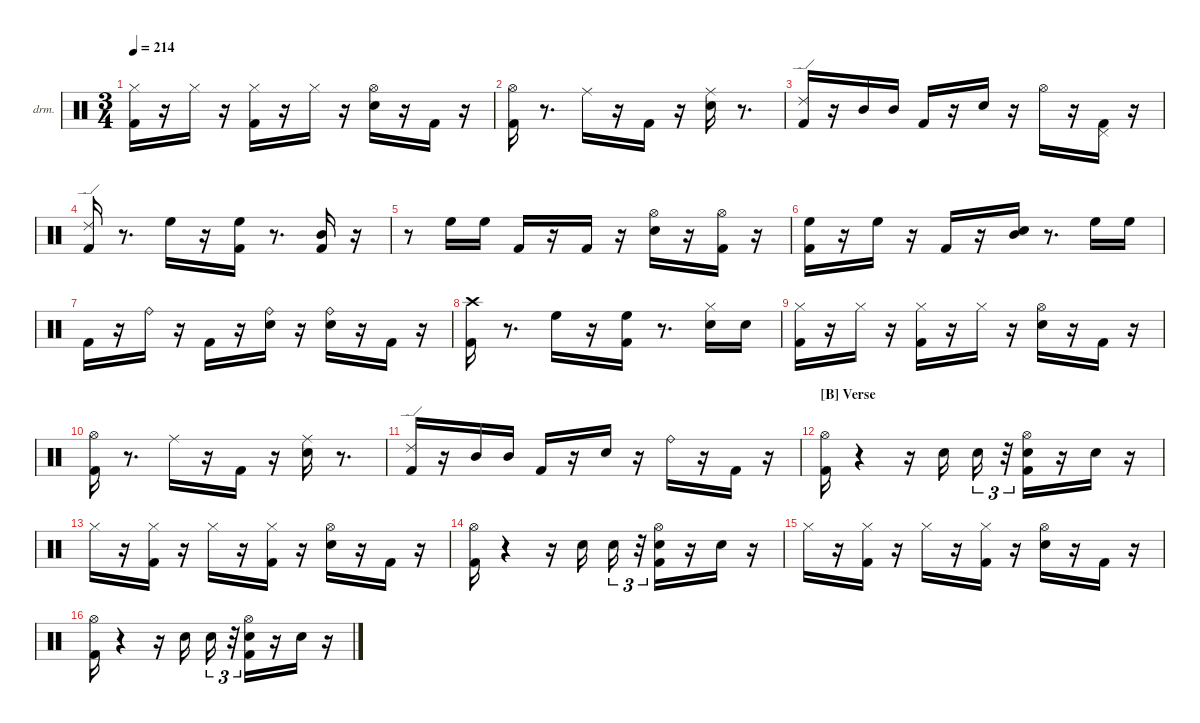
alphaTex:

\hideDynamics
\bracketExtendMode nobrackets
\firstSystemTrackNameOrientation horizontal
\track ("EZdrummer 3" "drm.") {instrument percussion}
\staff {score}
\articulation defaults
\ts (3 4)
\tempo 214
\clef neutral
\ks aminor
("Kick (hit) 2" "Hi-Hat (closed)"{acc #}).16{dy ff} r.16 "Hi-Hat (closed)"{acc #}.16{dy p} r.16 ("Kick (hit) 2" "Hi-Hat (closed)"{acc #}).16{dy f} r.16 "Hi-Hat (closed)"{acc #}.16{dy p} r.16 ("Snare (hit) 2" "Hi-Hat (open)"{acc #}).16{dy ff} r.16 "Kick (hit) 2".16{dy mf} r.16 |
("Kick (hit) 2" "Hi-Hat (open)"{acc #}).16{dy fff} r.8{d} "Ride (middle)"{acc #}.16{dy ff} r.16 "Kick (hit) 2".16 r.16 ("Snare (hit) 2" "Ride (middle)"{acc #}).16 r.8{d} |
("Kick (hit) 2" "Ride (edge) 2").16 r.16 "Mid Tom (hit)".16{dy f} "Mid Tom (hit)".16{dy mp} "Kick (hit) 2".16{dy ff} r.16 "Snare (hit) 2".16 r.16 "Hi-Hat (open)"{acc #}.16{dy fff} r.16 ("Kick (hit) 2" "Pedal Hi-Hat (hit)"{acc #}).16{dy ff} r.16 |
("Kick (hit) 2" "Ride (edge) 2").16{dy fff} r.8{d} "High Floor Tom (hit)".16{dy mf} r.16 ("Kick (hit) 2" "High Floor Tom (hit)").16{dy fff} r.8{d} ("Kick (hit) 2" "Mid Tom (hit)").16{dy ff} r.16 |
r.8 "High Floor Tom (hit)".16{dy f} "High Floor Tom (hit)".16{dy mp} "Kick (hit) 2".16{dy mf} r.16 "Kick (hit) 2".16{dy fff} r.16 ("Snare (hit) 2" "Hi-Hat (open)"{acc #}).16{dy ff} r.16 ("Kick (hit) 2" "Hi-Hat (open)"{acc #}).16{dy mp} r.16 |
("Kick (hit) 2" "High Floor Tom (hit)").16{dy fff} r.16 "High Floor Tom (hit)".16{dy mf} r.16 "Kick (hit) 2".16{dy mp} r.16 ("Snare (hit) 2" "Mid Tom (hit)").16{dy fff} r.8{d} "High Floor Tom (hit)".16{dy ff} "High Floor Tom (hit)".16{dy mf} |
"Kick (hit) 2".16 r.16 "Ride (bell)".16{dy fff} r.16 "Kick (hit) 2".16{dy ff} r.16 ("Snare (hit) 2" "Ride (bell)").16{dy mf} r.16 ("Snare (hit) 2" "Ride (bell)").16{dy fff} r.16 "Kick (hit) 2".16{dy mf} r.16 |
("Kick (hit) 2" "Crash high (hit)"{acc #}).16{dy fff} r.8{d} "High Floor Tom (hit)".16 r.16 ("Kick (hit) 2" "High Floor Tom (hit)").16{dy f} r.8{d} ("Snare (hit) 2" "Hi-Hat (closed)"{acc #}).16{dy mf} "Snare (hit) 2".16{dy p} |
("Kick (hit) 2" "Hi-Hat (closed)"{acc #}).16{dy ff} r.16 "Hi-Hat (closed)"{acc #}.16{dy p} r.16 ("Kick (hit) 2" "Hi-Hat (closed)"{acc #}).16{dy f} r.16 "Hi-Hat (closed)"{acc #}.16{dy p} r.16 ("Snare (hit) 2" "Hi-Hat (open)"{acc #}).16{dy f} r.16 "Kick (hit) 2".16{dy mf} r.16 |
("Kick (hit) 2" "Hi-Hat (open)"{acc #}).16{dy fff} r.8{d} "Ride (middle)"{acc #}.16{dy ff} r.16 "Kick (hit) 2".16 r.16 ("Snare (hit) 2" "Ride (middle)"{acc #}).16 r.8{d} |
("Kick (hit) 2" "Ride (edge) 2").16 r.16 "Mid Tom (hit)".16{dy f} "Mid Tom (hit)".16{dy mp} "Kick (hit) 2".16{dy ff} r.16 "Snare (hit) 2".16 r.16 "Ride (bell)".16{dy fff} r.16 "Kick (hit) 2".16{dy mf} r.16 |
\section ("B" "Verse")
("Kick (hit) 2" "Hi-Hat (open)"{acc #}).16{dy ff} r.4 r.16 "Snare (hit) 2".16{dy f} "Snare (hit) 2".16{tu (3 2) dy p} r.32{tu (3 2)} ("Kick (hit) 2" "Snare (hit) 2" "Hi-Hat (open)"{acc #}).16{dy f} r.16 "Snare (hit) 2".16{dy fff} r.16 |
"Hi-Hat (closed)"{acc #}.16{dy f} r.16 ("Kick (hit) 2" "Hi-Hat (closed)"{acc #}).16{dy ff} r.16 "Hi-Hat (closed)"{acc #}.16{dy pp} r.16 ("Kick (hit) 2" "Hi-Hat (closed)"{acc #}).16{dy f} r.16 ("Snare (hit) 2" "Hi-Hat (open)"{acc #}).16{dy ff} r.16 "Kick (hit) 2".16{dy mf} r.16 |
("Kick (hit) 2" "Hi-Hat (open)"{acc #}).16{dy ff} r.4 r.16 "Snare (hit) 2".16{dy f} "Snare (hit) 2".16{tu (3 2) dy p} r.32{tu (3 2)} ("Kick (hit) 2" "Snare (hit) 2" "Hi-Hat (open)"{acc #}).16{dy f} r.16 "Snare (hit) 2".16{dy fff} r.16 |
"Hi-Hat (closed)"{acc #}.16{dy f} r.16 ("Kick (hit) 2" "Hi-Hat (closed)"{acc #}).16{dy ff} r.16 "Hi-Hat (closed)"{acc #}.16{dy pp} r.16 ("Kick (hit) 2" "Hi-Hat (closed)"{acc #}).16{dy f} r.16 ("Snare (hit) 2" "Hi-Hat (open)"{acc #}).16{dy ff} r.16 "Kick (hit) 2".16{dy mf} r.16 |
("Kick (hit) 2" "Hi-Hat (open)"{acc #}).16{dy ff} r.4 r.16 "Snare (hit) 2".16{dy f} "Snare (hit) 2".16{tu (3 2) dy p} r.32{tu (3 2)} ("Kick (hit) 2" "Snare (hit) 2" "Hi-Hat (open)"{acc #}).16{dy f} r.16 "Snare (hit) 2".16{dy fff} r.16
